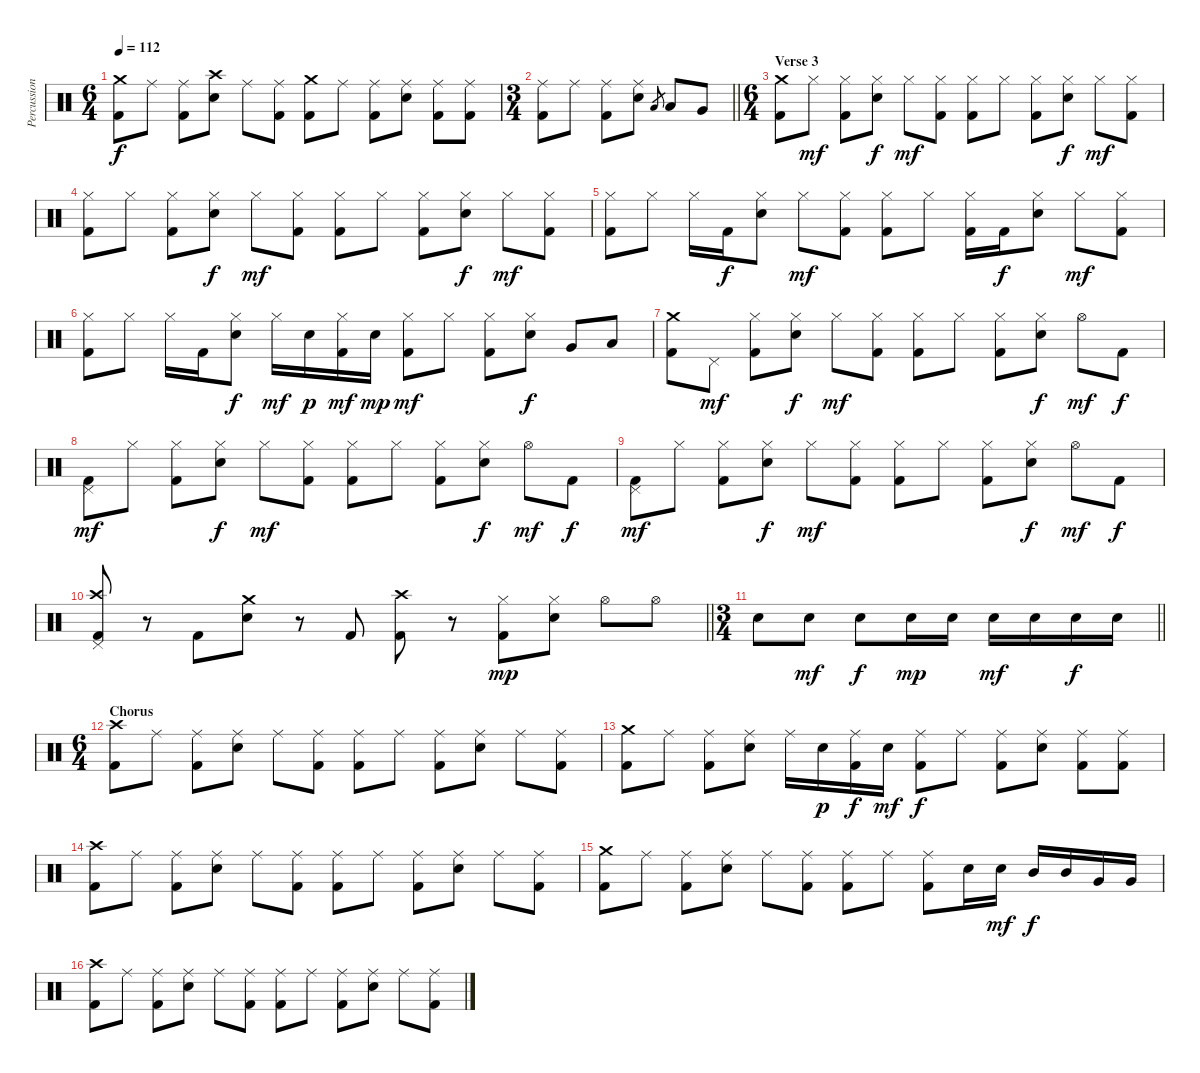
\track ("Percussion" "Percussion") {instrument percussion}
\staff {score}
\articulation defaults
\ts (6 4)
\tempo 112
\clef neutral
\ks c
("Crash medium (hit)" "Kick (hit) 2").8{dy f} "Ride (middle)".8 ("Ride (middle)" "Kick (hit) 2").8 ("Crash high (hit)" "Snare (hit) 2").8 "Ride (middle)".8 ("Ride (middle)" "Kick (hit) 2").8 ("Crash medium (hit)" "Kick (hit) 2").8 "Ride (middle)".8 ("Ride (middle)" "Kick (hit) 2").8 ("Ride (middle)" "Snare (hit) 2").8 ("Ride (middle)" "Kick (hit) 2").8 ("Ride (middle)" "Kick (hit) 2").8 |
\ts (3 4)
\barLineRight lightlight
("Ride (middle)" "Kick (hit) 2").8 "Ride (middle)".8 ("Ride (middle)" "Kick (hit) 2").8 ("Ride (middle)" "Snare (hit) 2").8 "Low Tom (hit)".8{gr} "Low Tom (hit)".8 "Very Low Tom (hit)".8 |
\ts (6 4)
\section ("" "Verse 3")
("Crash medium (hit)" "Kick (hit) 2").8 "Hi-Hat (closed)".8{dy mf} ("Hi-Hat (closed)" "Kick (hit) 2").8 ("Hi-Hat (closed)" "Snare (hit) 2").8{dy f} "Hi-Hat (closed)".8{dy mf} ("Hi-Hat (closed)" "Kick (hit) 2").8 ("Hi-Hat (closed)" "Kick (hit) 2").8 "Hi-Hat (closed)".8 ("Hi-Hat (closed)" "Kick (hit) 2").8 ("Hi-Hat (closed)" "Snare (hit) 2").8{dy f} "Hi-Hat (closed)".8{dy mf} ("Hi-Hat (closed)" "Kick (hit) 2").8 |
("Hi-Hat (closed)" "Kick (hit) 2").8 "Hi-Hat (closed)".8 ("Hi-Hat (closed)" "Kick (hit) 2").8 ("Hi-Hat (closed)" "Snare (hit) 2").8{dy f} "Hi-Hat (closed)".8{dy mf} ("Hi-Hat (closed)" "Kick (hit) 2").8 ("Hi-Hat (closed)" "Kick (hit) 2").8 "Hi-Hat (closed)".8 ("Hi-Hat (closed)" "Kick (hit) 2").8 ("Hi-Hat (closed)" "Snare (hit) 2").8{dy f} "Hi-Hat (closed)".8{dy mf} ("Hi-Hat (closed)" "Kick (hit) 2").8 |
("Hi-Hat (closed)" "Kick (hit) 2").8 "Hi-Hat (closed)".8 "Hi-Hat (closed)".16 "Kick (hit) 2".16{dy f} ("Hi-Hat (closed)" "Snare (hit) 2").8 "Hi-Hat (closed)".8{dy mf} ("Hi-Hat (closed)" "Kick (hit) 2").8 ("Hi-Hat (closed)" "Kick (hit) 2").8 "Hi-Hat (closed)".8 ("Hi-Hat (closed)" "Kick (hit) 2").16 "Kick (hit) 2".16{dy f} ("Hi-Hat (closed)" "Snare (hit) 2").8 "Hi-Hat (closed)".8{dy mf} ("Hi-Hat (closed)" "Kick (hit) 2").8 |
("Hi-Hat (closed)" "Kick (hit) 2").8 "Hi-Hat (closed)".8 "Hi-Hat (closed)".16 "Kick (hit) 2".16 ("Hi-Hat (closed)" "Snare (hit) 2").8{dy f} "Hi-Hat (closed)".16{dy mf} "Snare (hit) 2".16{dy p} ("Hi-Hat (closed)" "Kick (hit) 2").16{dy mf} "Snare (hit) 2".16{dy mp} ("Hi-Hat (closed)" "Kick (hit) 2").8{dy mf} "Hi-Hat (closed)".8 ("Hi-Hat (closed)" "Kick (hit) 2").8 ("Hi-Hat (closed)" "Snare (hit) 2").8{dy f} "Very Low Tom (hit)".8 "Low Floor Tom (hit)".8 |
("Crash medium (hit)" "Kick (hit) 2").8 "Pedal Hi-Hat (hit)".8{dy mf} ("Hi-Hat (closed)" "Kick (hit) 2").8 ("Hi-Hat (closed)" "Snare (hit) 2").8{dy f} "Hi-Hat (closed)".8{dy mf} ("Hi-Hat (closed)" "Kick (hit) 2").8 ("Hi-Hat (closed)" "Kick (hit) 2").8 "Hi-Hat (closed)".8 ("Hi-Hat (closed)" "Kick (hit) 2").8 ("Hi-Hat (closed)" "Snare (hit) 2").8{dy f} "Hi-Hat (open)".8{dy mf} "Kick (hit) 2".8{dy f} |
("Pedal Hi-Hat (hit)" "Kick (hit) 2").8{dy mf} "Hi-Hat (closed)".8 ("Hi-Hat (closed)" "Kick (hit) 2").8 ("Hi-Hat (closed)" "Snare (hit) 2").8{dy f} "Hi-Hat (closed)".8{dy mf} ("Hi-Hat (closed)" "Kick (hit) 2").8 ("Hi-Hat (closed)" "Kick (hit) 2").8 "Hi-Hat (closed)".8 ("Hi-Hat (closed)" "Kick (hit) 2").8 ("Hi-Hat (closed)" "Snare (hit) 2").8{dy f} "Hi-Hat (open)".8{dy mf} "Kick (hit) 2".8{dy f} |
("Pedal Hi-Hat (hit)" "Kick (hit) 2").8{dy mf} "Hi-Hat (closed)".8 ("Hi-Hat (closed)" "Kick (hit) 2").8 ("Hi-Hat (closed)" "Snare (hit) 2").8{dy f} "Hi-Hat (closed)".8{dy mf} ("Hi-Hat (closed)" "Kick (hit) 2").8 ("Hi-Hat (closed)" "Kick (hit) 2").8 "Hi-Hat (closed)".8 ("Hi-Hat (closed)" "Kick (hit) 2").8 ("Hi-Hat (closed)" "Snare (hit) 2").8{dy f} "Hi-Hat (open)".8{dy mf} "Kick (hit) 2".8{dy f} |
\barLineRight lightlight
("Crash high (hit)" "Pedal Hi-Hat (hit)" "Kick (hit) 2").8 r.8 "Kick (hit) 2".8 ("Crash medium (hit)" "Snare (hit) 2").8 r.8 "Kick (hit) 2".8 ("Crash high (hit)" "Kick (hit) 2").8 r.8 ("Hi-Hat (closed)" "Kick (hit) 2").8{dy mp} ("Hi-Hat (closed)" "Snare (hit) 2").8 "Hi-Hat (open)".8 "Hi-Hat (open)".8 |
\ts (3 4)
\barLineRight lightlight "Snare (hit) 2".8 "Snare (hit) 2".8{dy mf} "Snare (hit) 2".8{dy f} "Snare (hit) 2".16{dy mp} "Snare (hit) 2".16 "Snare (hit) 2".16{dy mf} "Snare (hit) 2".16 "Snare (hit) 2".16{dy f} "Snare (hit) 2".16
|
\ts (6 4)
\section ("" "Chorus")
("Crash high (hit)" "Kick (hit) 2").8 "Ride (middle)".8 ("Ride (middle)" "Kick (hit) 2").8 ("Ride (middle)" "Snare (hit) 2").8 "Ride (middle)".8 ("Ride (middle)" "Kick (hit) 2").8 ("Ride (middle)" "Kick (hit) 2").8 "Ride (middle)".8 ("Ride (middle)" "Kick (hit) 2").8 ("Ride (middle)" "Snare (hit) 2").8 "Ride (middle)".8 ("Ride (middle)" "Kick (hit) 2").8 |
("Crash medium (hit)" "Kick (hit) 2").8 "Ride (middle)".8 ("Ride (middle)" "Kick (hit) 2").8 ("Ride (middle)" "Snare (hit) 2").8 "Ride (middle)".16 "Snare (hit) 2".16{dy p} ("Ride (middle)" "Kick (hit) 2").16{dy f} "Snare (hit) 2".16{dy mf} ("Ride (middle)" "Kick (hit) 2").8{dy f} "Ride (middle)".8 ("Ride (middle)" "Kick (hit) 2").8 ("Ride (middle)" "Snare (hit) 2").8 ("Ride (middle)" "Kick (hit) 2").8 ("Ride (middle)" "Kick (hit) 2").8 |
("Crash high (hit)" "Kick (hit) 2").8 "Ride (middle)".8 ("Ride (middle)" "Kick (hit) 2").8 ("Ride (middle)" "Snare (hit) 2").8 "Ride (middle)".8 ("Ride (middle)" "Kick (hit) 2").8 ("Ride (middle)" "Kick (hit) 2").8 "Ride (middle)".8 ("Ride (middle)" "Kick (hit) 2").8 ("Ride (middle)" "Snare (hit) 2").8 "Ride (middle)".8 ("Ride (middle)" "Kick (hit) 2").8 |
("Crash medium (hit)" "Kick (hit) 2").8 "Ride (middle)".8 ("Ride (middle)" "Kick (hit) 2").8 ("Ride (middle)" "Snare (hit) 2").8 "Ride (middle)".8 ("Ride (middle)" "Kick (hit) 2").8 ("Ride (middle)" "Kick (hit) 2").8 "Ride (middle)".8 ("Ride (middle)" "Kick (hit) 2").8 "Snare (hit) 2".16 "Snare (hit) 2".16{dy mf} "Mid Tom (hit)".16{dy f} "Mid Tom (hit)".16 "Very Low Tom (hit)".16 "Very Low Tom (hit)".16 |
("Crash high (hit)" "Kick (hit) 2").8 "Ride (middle)".8 ("Ride (middle)" "Kick (hit) 2").8 ("Ride (middle)" "Snare (hit) 2").8 "Ride (middle)".8 ("Ride (middle)" "Kick (hit) 2").8 ("Ride (middle)" "Kick (hit) 2").8 "Ride (middle)".8 ("Ride (middle)" "Kick (hit) 2").8 ("Ride (middle)" "Snare (hit) 2").8 "Ride (middle)".8 ("Ride (middle)" "Kick (hit) 2").8
